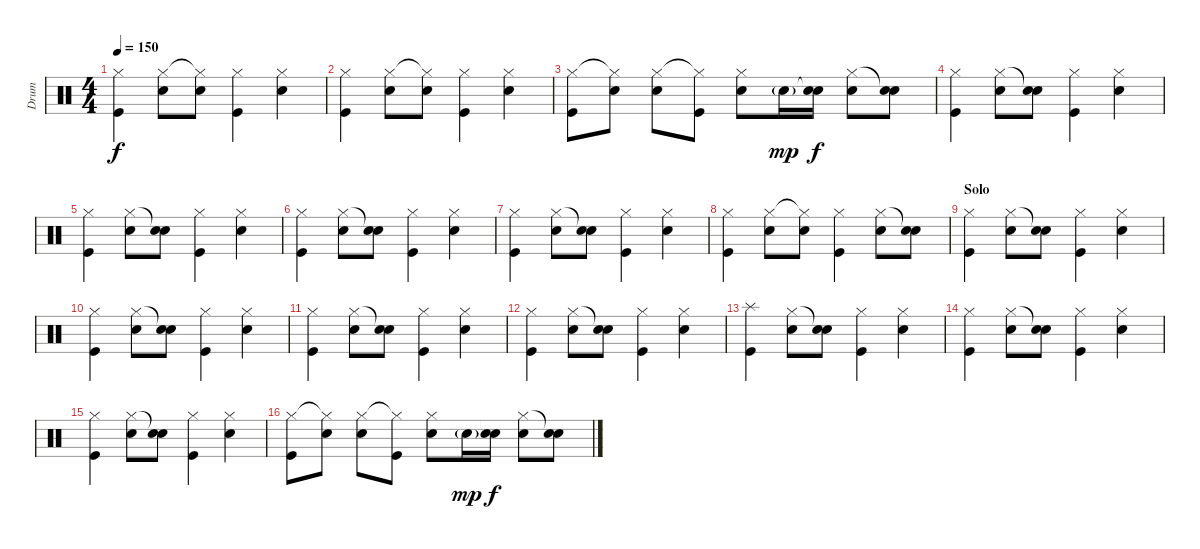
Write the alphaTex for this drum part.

\track ("Drum" "Drum") {instrument percussion}
\staff {score}
\articulation defaults
\ts (4 4)
\tempo 150
\clef neutral
\ks c
("Hi-Hat (closed)" "Kick (hit)").4{dy f} ("Hi-Hat (closed)" "Snare (hit) 2").8 ("Hi-Hat (closed)"{t} "Snare (hit) 2").8 ("Hi-Hat (closed)" "Kick (hit)").4 ("Hi-Hat (closed)" "Snare (hit) 2").4 |
("Hi-Hat (closed)" "Kick (hit)").4 ("Hi-Hat (closed)" "Snare (hit) 2").8 ("Hi-Hat (closed)"{t} "Snare (hit) 2").8 ("Hi-Hat (closed)" "Kick (hit)").4 ("Hi-Hat (closed)" "Snare (hit) 2").4 |
("Hi-Hat (closed)" "Kick (hit)").8 ("Hi-Hat (closed)"{t} "Snare (hit) 2").8 ("Hi-Hat (closed)" "Snare (hit) 2").8 ("Hi-Hat (closed)"{t} "Kick (hit)").8 ("Hi-Hat (closed)" "Snare (hit) 2").8 "Snare (hit) 2"{g}.16{dy mp} ("Snare (hit)"{t} "Snare (hit) 2").16{dy f} ("Hi-Hat (closed)" "Snare (hit) 2").8 ("Snare (hit)"{t} "Snare (hit) 2").8 |
("Hi-Hat (closed)" "Kick (hit)").4 ("Hi-Hat (closed)" "Snare (hit) 2").8 ("Snare (hit)"{t} "Snare (hit) 2").8 ("Hi-Hat (closed)" "Kick (hit)").4 ("Hi-Hat (closed)" "Snare (hit) 2").4 |
("Hi-Hat (closed)" "Kick (hit)").4 ("Hi-Hat (closed)" "Snare (hit) 2").8 ("Snare (hit)"{t} "Snare (hit) 2").8 ("Hi-Hat (closed)" "Kick (hit)").4 ("Hi-Hat (closed)" "Snare (hit) 2").4 |
("Hi-Hat (closed)" "Kick (hit)").4 ("Hi-Hat (closed)" "Snare (hit) 2").8 ("Snare (hit)"{t} "Snare (hit) 2").8 ("Hi-Hat (closed)" "Kick (hit)").4 ("Hi-Hat (closed)" "Snare (hit) 2").4 |
("Hi-Hat (closed)" "Kick (hit)").4 ("Hi-Hat (closed)" "Snare (hit) 2").8 ("Snare (hit)"{t} "Snare (hit) 2").8 ("Hi-Hat (closed)" "Kick (hit)").4 ("Hi-Hat (closed)" "Snare (hit) 2").4 |
("Hi-Hat (closed)" "Kick (hit)").4 ("Hi-Hat (closed)" "Snare (hit) 2").8 ("Hi-Hat (closed)"{t} "Snare (hit) 2").8 ("Hi-Hat (closed)" "Kick (hit)").4 ("Hi-Hat (closed)" "Snare (hit) 2").8 ("Snare (hit)"{t} "Snare (hit) 2").8 |
\section ("" "Solo")
("Hi-Hat (closed)" "Kick (hit)").4 ("Hi-Hat (closed)" "Snare (hit) 2").8 ("Snare (hit)"{t} "Snare (hit) 2").8 ("Hi-Hat (closed)" "Kick (hit)").4 ("Hi-Hat (closed)" "Snare (hit) 2").4 |
("Hi-Hat (closed)" "Kick (hit)").4 ("Hi-Hat (closed)" "Snare (hit) 2").8 ("Snare (hit)"{t} "Snare (hit) 2").8 ("Hi-Hat (closed)" "Kick (hit)").4 ("Hi-Hat (closed)" "Snare (hit) 2").4 |
("Hi-Hat (closed)" "Kick (hit)").4 ("Hi-Hat (closed)" "Snare (hit) 2").8 ("Snare (hit)"{t} "Snare (hit) 2").8 ("Hi-Hat (closed)" "Kick (hit)").4 ("Hi-Hat (closed)" "Snare (hit) 2").4 |
("Hi-Hat (closed)" "Kick (hit)").4 ("Hi-Hat (closed)" "Snare (hit) 2").8 ("Snare (hit)"{t} "Snare (hit) 2").8 ("Hi-Hat (closed)" "Kick (hit)").4 ("Hi-Hat (closed)" "Snare (hit) 2").4 |
("Splash (hit)" "Kick (hit)").4 ("Hi-Hat (closed)" "Snare (hit) 2").8 ("Snare (hit)"{t} "Snare (hit) 2").8 ("Hi-Hat (closed)" "Kick (hit)").4 ("Hi-Hat (closed)" "Snare (hit) 2").4 |
("Hi-Hat (closed)" "Kick (hit)").4 ("Hi-Hat (closed)" "Snare (hit) 2").8 ("Snare (hit)"{t} "Snare (hit) 2").8 ("Hi-Hat (closed)" "Kick (hit)").4 ("Hi-Hat (closed)" "Snare (hit) 2").4 |
("Hi-Hat (closed)" "Kick (hit)").4 ("Hi-Hat (closed)" "Snare (hit) 2").8 ("Snare (hit)"{t} "Snare (hit) 2").8 ("Hi-Hat (closed)" "Kick (hit)").4 ("Hi-Hat (closed)" "Snare (hit) 2").4 |
("Hi-Hat (closed)" "Kick (hit)").8 ("Hi-Hat (closed)"{t} "Snare (hit) 2").8 ("Hi-Hat (closed)" "Snare (hit) 2").8 ("Hi-Hat (closed)"{t} "Kick (hit)").8 ("Hi-Hat (closed)" "Snare (hit) 2").8 "Snare (hit) 2"{g}.16{dy mp} ("Snare (hit)"{t} "Snare (hit) 2").16{dy f} ("Hi-Hat (closed)" "Snare (hit) 2").8 ("Snare (hit)"{t} "Snare (hit) 2").8
